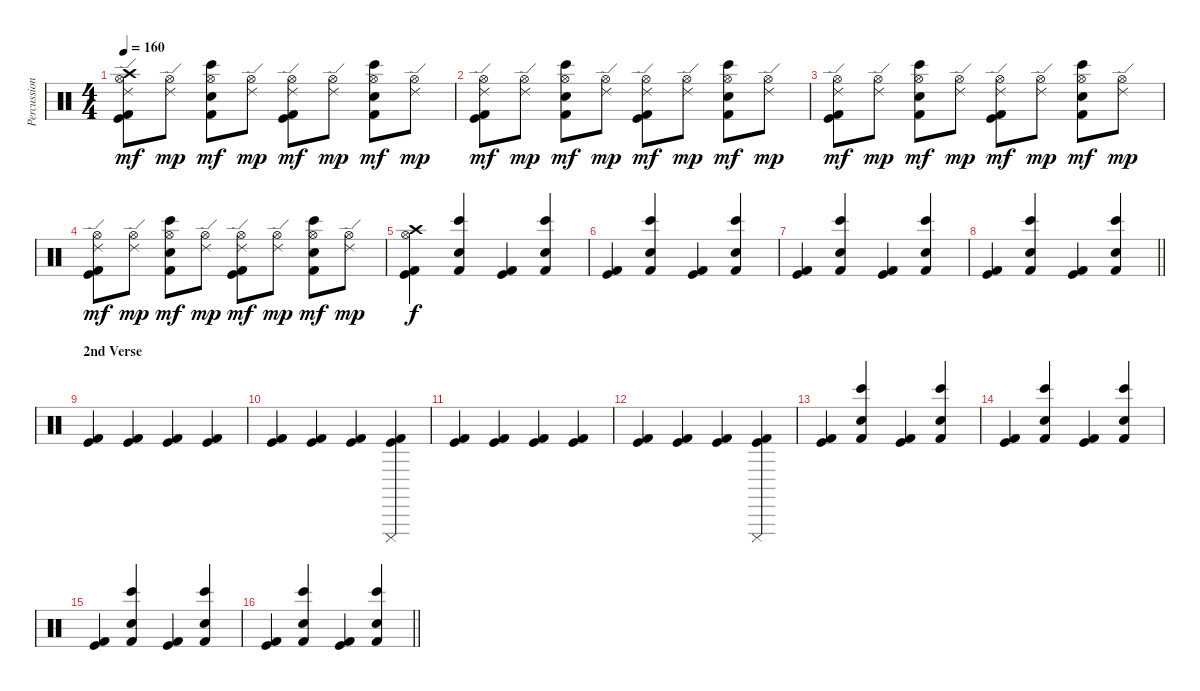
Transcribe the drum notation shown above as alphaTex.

\track ("Percussion" "Percussion") {instrument percussion}
\staff {score}
\articulation defaults
\ts (4 4)
\tempo 160
\clef neutral
\ks c
("Crash high (hit)" "Ride (edge) 2" "Hi-Hat (open)" "Kick (hit)" "Kick (hit) 2").8{dy mf} ("Ride (edge) 2" "Hi-Hat (open)").8{dy mp} ("Bongo High (hit)" "Hi-Hat (open)" "Hand Clap (hit)" "Kick (hit) 2").8{dy mf} ("Ride (edge) 2" "Hi-Hat (open)").8{dy mp} ("Ride (edge) 2" "Hi-Hat (open)" "Kick (hit)" "Kick (hit) 2").8{dy mf} ("Ride (edge) 2" "Hi-Hat (open)").8{dy mp} ("Bongo High (hit)" "Hi-Hat (open)" "Hand Clap (hit)" "Kick (hit) 2").8{dy mf} ("Ride (edge) 2" "Hi-Hat (open)").8{dy mp} |
("Ride (edge) 2" "Hi-Hat (open)" "Kick (hit)" "Kick (hit) 2").8{dy mf} ("Ride (edge) 2" "Hi-Hat (open)").8{dy mp} ("Bongo High (hit)" "Hi-Hat (open)" "Hand Clap (hit)" "Kick (hit) 2").8{dy mf} ("Ride (edge) 2" "Hi-Hat (open)").8{dy mp} ("Ride (edge) 2" "Hi-Hat (open)" "Kick (hit)" "Kick (hit) 2").8{dy mf} ("Ride (edge) 2" "Hi-Hat (open)").8{dy mp} ("Bongo High (hit)" "Hi-Hat (open)" "Hand Clap (hit)" "Kick (hit) 2").8{dy mf} ("Ride (edge) 2" "Hi-Hat (open)").8{dy mp} |
("Ride (edge) 2" "Hi-Hat (open)" "Kick (hit)" "Kick (hit) 2").8{dy mf} ("Ride (edge) 2" "Hi-Hat (open)").8{dy mp} ("Bongo High (hit)" "Hi-Hat (open)" "Hand Clap (hit)" "Kick (hit) 2").8{dy mf} ("Ride (edge) 2" "Hi-Hat (open)").8{dy mp} ("Ride (edge) 2" "Hi-Hat (open)" "Kick (hit)" "Kick (hit) 2").8{dy mf} ("Ride (edge) 2" "Hi-Hat (open)").8{dy mp} ("Bongo High (hit)" "Hi-Hat (open)" "Hand Clap (hit)" "Kick (hit) 2").8{dy mf} ("Ride (edge) 2" "Hi-Hat (open)").8{dy mp} |
("Ride (edge) 2" "Hi-Hat (open)" "Kick (hit)" "Kick (hit) 2").8{dy mf} ("Ride (edge) 2" "Hi-Hat (open)").8{dy mp} ("Bongo High (hit)" "Hi-Hat (open)" "Hand Clap (hit)" "Kick (hit) 2").8{dy mf} ("Ride (edge) 2" "Hi-Hat (open)").8{dy mp} ("Ride (edge) 2" "Hi-Hat (open)" "Kick (hit)" "Kick (hit) 2").8{dy mf} ("Ride (edge) 2" "Hi-Hat (open)").8{dy mp} ("Bongo High (hit)" "Hi-Hat (open)" "Hand Clap (hit)" "Kick (hit) 2").8{dy mf} ("Ride (edge) 2" "Hi-Hat (open)").8{dy mp} |
("Crash high (hit)" "Hi-Hat (open)" "Kick (hit)" "Kick (hit) 2").4{dy f} ("Bongo High (hit)" "Hand Clap (hit)" "Kick (hit) 2").4 ("Kick (hit)" "Kick (hit) 2").4 ("Bongo High (hit)" "Hand Clap (hit)" "Kick (hit) 2").4 |
("Kick (hit)" "Kick (hit) 2").4 ("Bongo High (hit)" "Hand Clap (hit)" "Kick (hit) 2").4 ("Kick (hit)" "Kick (hit) 2").4 ("Bongo High (hit)" "Hand Clap (hit)" "Kick (hit) 2").4 |
("Kick (hit)" "Kick (hit) 2").4 ("Bongo High (hit)" "Hand Clap (hit)" "Kick (hit) 2").4 ("Kick (hit)" "Kick (hit) 2").4 ("Bongo High (hit)" "Hand Clap (hit)" "Kick (hit) 2").4 |
\barLineRight lightlight
("Kick (hit)" "Kick (hit) 2").4 ("Bongo High (hit)" "Hand Clap (hit)" "Kick (hit) 2").4 ("Kick (hit)" "Kick (hit) 2").4 ("Bongo High (hit)" "Hand Clap (hit)" "Kick (hit) 2").4 |
\section ("" "2nd Verse")
("Kick (hit)" "Kick (hit) 2").4 ("Kick (hit)" "Kick (hit) 2").4 ("Kick (hit)" "Kick (hit) 2").4 ("Kick (hit)" "Kick (hit) 2").4 |
("Kick (hit)" "Kick (hit) 2").4 ("Kick (hit)" "Kick (hit) 2").4 ("Kick (hit)" "Kick (hit) 2").4 ("Cuica (mute)" "Kick (hit)" "Kick (hit) 2").4 |
("Kick (hit)" "Kick (hit) 2").4 ("Kick (hit)" "Kick (hit) 2").4 ("Kick (hit)" "Kick (hit) 2").4 ("Kick (hit)" "Kick (hit) 2").4 |
("Kick (hit)" "Kick (hit) 2").4 ("Kick (hit)" "Kick (hit) 2").4 ("Kick (hit)" "Kick (hit) 2").4 ("Cuica (mute)" "Kick (hit)" "Kick (hit) 2").4 |
("Kick (hit)" "Kick (hit) 2").4 ("Bongo High (hit)" "Hand Clap (hit)" "Kick (hit) 2").4 ("Kick (hit)" "Kick (hit) 2").4 ("Bongo High (hit)" "Hand Clap (hit)" "Kick (hit) 2").4 |
("Kick (hit)" "Kick (hit) 2").4 ("Bongo High (hit)" "Hand Clap (hit)" "Kick (hit) 2").4 ("Kick (hit)" "Kick (hit) 2").4 ("Bongo High (hit)" "Hand Clap (hit)" "Kick (hit) 2").4 |
("Kick (hit)" "Kick (hit) 2").4 ("Bongo High (hit)" "Hand Clap (hit)" "Kick (hit) 2").4 ("Kick (hit)" "Kick (hit) 2").4 ("Bongo High (hit)" "Hand Clap (hit)" "Kick (hit) 2").4 |
\barLineRight lightlight
("Kick (hit)" "Kick (hit) 2").4 ("Bongo High (hit)" "Hand Clap (hit)" "Kick (hit) 2").4 ("Kick (hit)" "Kick (hit) 2").4 ("Bongo High (hit)" "Hand Clap (hit)" "Kick (hit) 2").4
